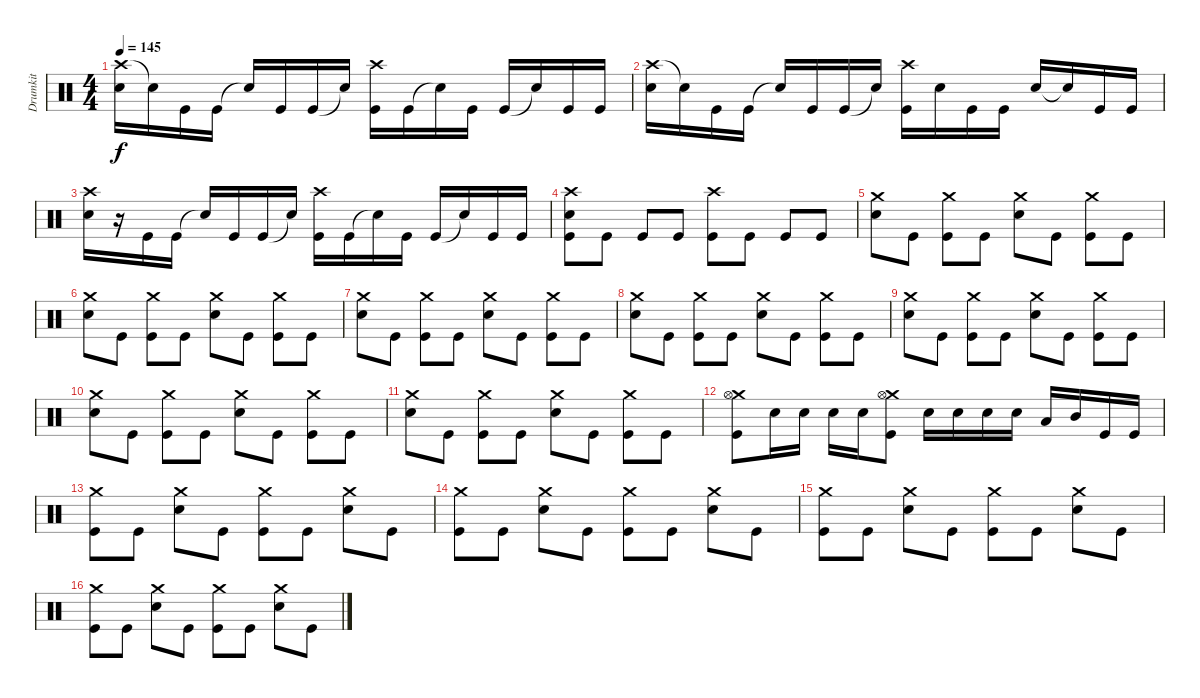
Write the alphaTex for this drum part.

\track ("Drumkit" "Drumkit") {instrument percussion}
\staff {score}
\articulation defaults
\ts (4 4)
\tempo 145
\clef neutral
\ks c
("Crash high (hit)" "Electric Snare (hit)").16{dy f} "Snare (hit)"{t}.16 "Kick (hit)".16 "Kick (hit)".16 "Snare (hit)"{t}.16 "Kick (hit)".16 "Kick (hit)".16 "Snare (hit)"{t}.16 ("Crash high (hit)" "Kick (hit)").16 "Kick (hit)".16 "Snare (hit)"{t}.16 "Kick (hit)".16 "Kick (hit)".16 "Snare (hit)"{t}.16 "Kick (hit)".16 "Kick (hit)".16 |
("Crash high (hit)" "Electric Snare (hit)").16 "Snare (hit)"{t}.16 "Kick (hit)".16 "Kick (hit)".16 "Snare (hit)"{t}.16 "Kick (hit)".16 "Kick (hit)".16 "Snare (hit)"{t}.16 ("Crash high (hit)" "Kick (hit)").16 "Electric Snare (hit)".16 "Kick (hit)".16 "Kick (hit)".16 "Electric Snare (hit)".16 "Snare (hit)"{t}.16 "Kick (hit)".16 "Kick (hit)".16 |
("Crash high (hit)" "Electric Snare (hit)").16 r.16 "Kick (hit)".16 "Kick (hit)".16 "Snare (hit)"{t}.16 "Kick (hit)".16 "Kick (hit)".16 "Snare (hit)"{t}.16 ("Crash high (hit)" "Kick (hit)").16 "Kick (hit)".16 "Snare (hit)"{t}.16 "Kick (hit)".16 "Kick (hit)".16 "Snare (hit)"{t}.16 "Kick (hit)".16 "Kick (hit)".16 |
("Crash high (hit)" "Electric Snare (hit)" "Kick (hit)").8 "Kick (hit)".8 "Kick (hit)".8 "Kick (hit)".8 ("Crash high (hit)" "Kick (hit)").8 "Kick (hit)".8 "Kick (hit)".8 "Kick (hit)".8 |
("Crash medium (hit)" "Electric Snare (hit)").8 "Kick (hit)".8 ("Crash medium (hit)" "Kick (hit)").8 "Kick (hit)".8 ("Crash medium (hit)" "Electric Snare (hit)").8 "Kick (hit)".8 ("Crash medium (hit)" "Kick (hit)").8 "Kick (hit)".8 |
("Crash medium (hit)" "Electric Snare (hit)").8 "Kick (hit)".8 ("Crash medium (hit)" "Kick (hit)").8 "Kick (hit)".8 ("Crash medium (hit)" "Electric Snare (hit)").8 "Kick (hit)".8 ("Crash medium (hit)" "Kick (hit)").8 "Kick (hit)".8 |
("Crash medium (hit)" "Electric Snare (hit)").8 "Kick (hit)".8 ("Crash medium (hit)" "Kick (hit)").8 "Kick (hit)".8 ("Crash medium (hit)" "Electric Snare (hit)").8 "Kick (hit)".8 ("Crash medium (hit)" "Kick (hit)").8 "Kick (hit)".8 |
("Crash medium (hit)" "Electric Snare (hit)").8 "Kick (hit)".8 ("Crash medium (hit)" "Kick (hit)").8 "Kick (hit)".8 ("Crash medium (hit)" "Electric Snare (hit)").8 "Kick (hit)".8 ("Crash medium (hit)" "Kick (hit)").8 "Kick (hit)".8 |
("Crash medium (hit)" "Electric Snare (hit)").8 "Kick (hit)".8 ("Crash medium (hit)" "Kick (hit)").8 "Kick (hit)".8 ("Crash medium (hit)" "Electric Snare (hit)").8 "Kick (hit)".8 ("Crash medium (hit)" "Kick (hit)").8 "Kick (hit)".8 |
("Crash medium (hit)" "Electric Snare (hit)").8 "Kick (hit)".8 ("Crash medium (hit)" "Kick (hit)").8 "Kick (hit)".8 ("Crash medium (hit)" "Electric Snare (hit)").8 "Kick (hit)".8 ("Crash medium (hit)" "Kick (hit)").8 "Kick (hit)".8 |
("Crash medium (hit)" "Electric Snare (hit)").8 "Kick (hit)".8 ("Crash medium (hit)" "Kick (hit)").8 "Kick (hit)".8 ("Crash medium (hit)" "Electric Snare (hit)").8 "Kick (hit)".8 ("Crash medium (hit)" "Kick (hit)").8 "Kick (hit)".8 |
("Crash medium (hit)" "Hi-Hat (open)" "Kick (hit)").8 "Electric Snare (hit)".16 "Electric Snare (hit)".16 "Electric Snare (hit)".16 "Electric Snare (hit)".16 ("Crash medium (hit)" "Hi-Hat (open)" "Kick (hit)").8 "Electric Snare (hit)".16 "Electric Snare (hit)".16 "Electric Snare (hit)".16 "Electric Snare (hit)".16 "Low Tom (hit)".16 "Mid Tom (hit)".16 "Kick (hit)".16 "Kick (hit)".16 |
("Crash medium (hit)" "Kick (hit)").8 "Kick (hit)".8 ("Crash medium (hit)" "Electric Snare (hit)").8 "Kick (hit)".8 ("Crash medium (hit)" "Kick (hit)").8 "Kick (hit)".8 ("Crash medium (hit)" "Electric Snare (hit)").8 "Kick (hit)".8 |
("Crash medium (hit)" "Kick (hit)").8 "Kick (hit)".8 ("Crash medium (hit)" "Electric Snare (hit)").8 "Kick (hit)".8 ("Crash medium (hit)" "Kick (hit)").8 "Kick (hit)".8 ("Crash medium (hit)" "Electric Snare (hit)").8 "Kick (hit)".8 |
("Crash medium (hit)" "Kick (hit)").8 "Kick (hit)".8 ("Crash medium (hit)" "Electric Snare (hit)").8 "Kick (hit)".8 ("Crash medium (hit)" "Kick (hit)").8 "Kick (hit)".8 ("Crash medium (hit)" "Electric Snare (hit)").8 "Kick (hit)".8 |
("Crash medium (hit)" "Kick (hit)").8 "Kick (hit)".8 ("Crash medium (hit)" "Electric Snare (hit)").8 "Kick (hit)".8 ("Crash medium (hit)" "Kick (hit)").8 "Kick (hit)".8 ("Crash medium (hit)" "Electric Snare (hit)").8 "Kick (hit)".8
